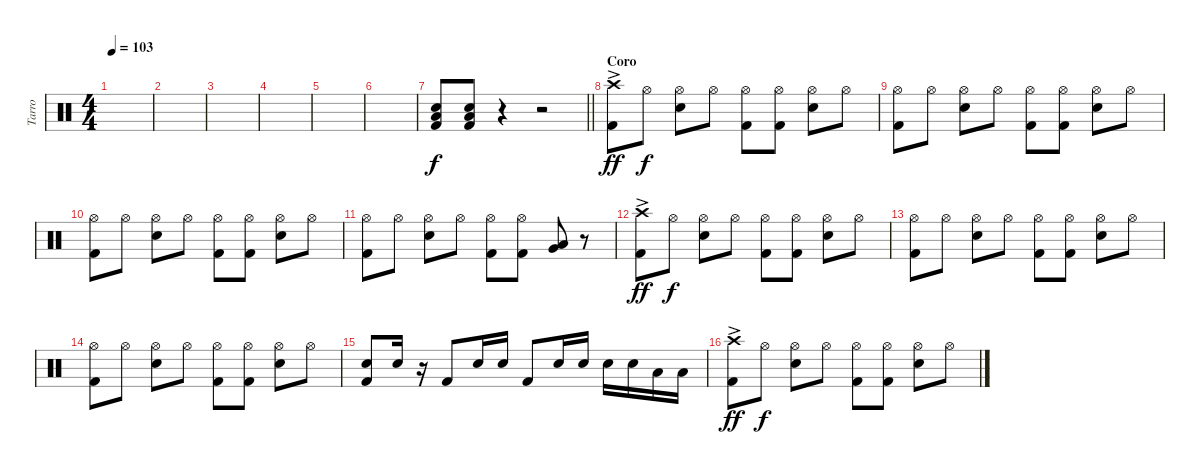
\track ("Tarro" "Tarro") {instrument percussion}
\staff {score}
\articulation defaults
\ts (4 4)
\tempo 103
\clef neutral
\ks c
|
|
|
|
|
|
\barLineRight lightlight
("Low Floor Tom (hit)" "Electric Snare (hit)" "Kick (hit) 2").8{dy f} ("Low Floor Tom (hit)" "Electric Snare (hit)" "Kick (hit) 2").8 r.4 r.2 |
\section ("" "Coro")
("Crash high (hit)"{ac} "Kick (hit) 2").8{dy ff} "Hi-Hat (open)".8{dy f} ("Hi-Hat (open)" "Electric Snare (hit)").8 "Hi-Hat (open)".8 ("Hi-Hat (open)" "Kick (hit) 2").8 ("Hi-Hat (open)" "Kick (hit) 2").8 ("Hi-Hat (open)" "Electric Snare (hit)").8 "Hi-Hat (open)".8 |
("Hi-Hat (open)" "Kick (hit) 2").8 "Hi-Hat (open)".8 ("Hi-Hat (open)" "Electric Snare (hit)").8 "Hi-Hat (open)".8 ("Hi-Hat (open)" "Kick (hit) 2").8 ("Hi-Hat (open)" "Kick (hit) 2").8 ("Hi-Hat (open)" "Electric Snare (hit)").8 "Hi-Hat (open)".8 |
("Hi-Hat (open)" "Kick (hit) 2").8 "Hi-Hat (open)".8 ("Hi-Hat (open)" "Electric Snare (hit)").8 "Hi-Hat (open)".8 ("Hi-Hat (open)" "Kick (hit) 2").8 ("Hi-Hat (open)" "Kick (hit) 2").8 ("Hi-Hat (open)" "Electric Snare (hit)").8 "Hi-Hat (open)".8 |
("Hi-Hat (open)" "Kick (hit) 2").8 "Hi-Hat (open)".8 ("Hi-Hat (open)" "Electric Snare (hit)").8 "Hi-Hat (open)".8 ("Hi-Hat (open)" "Kick (hit) 2").8 ("Hi-Hat (open)" "Kick (hit) 2").8 ("Very Low Tom (hit)" "Low Floor Tom (hit)").8 r.8 |
("Crash high (hit)"{ac} "Kick (hit) 2").8{dy ff} "Hi-Hat (open)".8{dy f} ("Hi-Hat (open)" "Electric Snare (hit)").8 "Hi-Hat (open)".8 ("Hi-Hat (open)" "Kick (hit) 2").8 ("Hi-Hat (open)" "Kick (hit) 2").8 ("Hi-Hat (open)" "Electric Snare (hit)").8 "Hi-Hat (open)".8 |
("Hi-Hat (open)" "Kick (hit) 2").8 "Hi-Hat (open)".8 ("Hi-Hat (open)" "Electric Snare (hit)").8 "Hi-Hat (open)".8 ("Hi-Hat (open)" "Kick (hit) 2").8 ("Hi-Hat (open)" "Kick (hit) 2").8 ("Hi-Hat (open)" "Electric Snare (hit)").8 "Hi-Hat (open)".8 |
("Hi-Hat (open)" "Kick (hit) 2").8 "Hi-Hat (open)".8 ("Hi-Hat (open)" "Electric Snare (hit)").8 "Hi-Hat (open)".8 ("Hi-Hat (open)" "Kick (hit) 2").8 ("Hi-Hat (open)" "Kick (hit) 2").8 ("Hi-Hat (open)" "Electric Snare (hit)").8 "Hi-Hat (open)".8 |
("Electric Snare (hit)" "Kick (hit) 2").8 "Electric Snare (hit)".16 r.16 "Kick (hit) 2".8 "Electric Snare (hit)".16 "Electric Snare (hit)".16 "Kick (hit) 2".8 "Electric Snare (hit)".16 "Electric Snare (hit)".16 "Electric Snare (hit)".16 "Electric Snare (hit)".16 "Low Floor Tom (hit)".16 "Low Floor Tom (hit)".16 |
("Crash high (hit)"{ac} "Kick (hit) 2").8{dy ff} "Hi-Hat (open)".8{dy f} ("Hi-Hat (open)" "Electric Snare (hit)").8 "Hi-Hat (open)".8 ("Hi-Hat (open)" "Kick (hit) 2").8 ("Hi-Hat (open)" "Kick (hit) 2").8 ("Hi-Hat (open)" "Electric Snare (hit)").8 "Hi-Hat (open)".8
